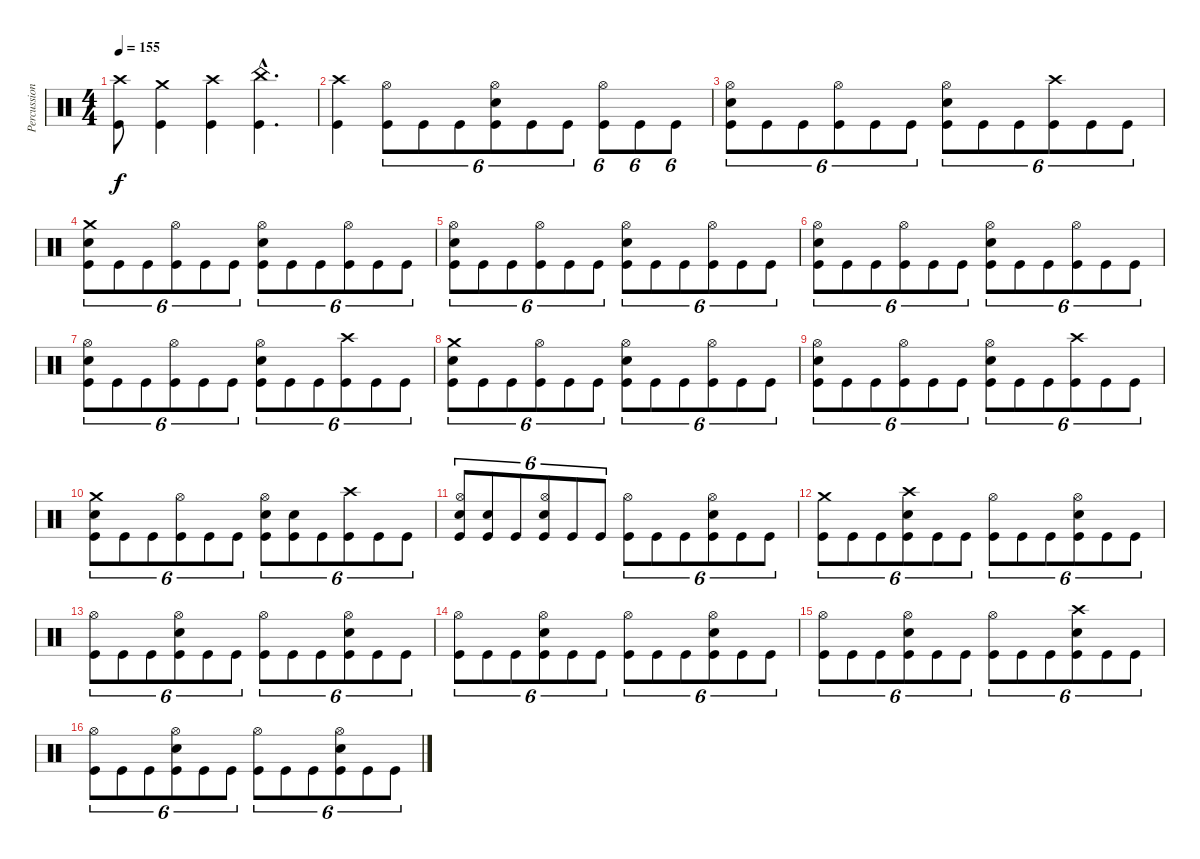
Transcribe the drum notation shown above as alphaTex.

\track ("Percussion" "Percussion") {instrument percussion}
\staff {score}
\articulation defaults
\ts (4 4)
\tempo 155
\clef neutral
\ks c
("Crash high (hit)" "Kick (hit)").8{dy f} ("Crash medium (hit)" "Kick (hit)").4 ("Crash high (hit)" "Kick (hit)").4 ("China (hit)"{hac} "Kick (hit)"{hac}).4{d} |
("Crash high (hit)" "Kick (hit)").4 ("Hi-Hat (open)" "Kick (hit)").8{tu (6 4)} "Kick (hit)".8{tu (6 4)} "Kick (hit)".8{tu (6 4)} ("Hi-Hat (open)" "Snare (hit) 2" "Kick (hit)").8{tu (6 4)} "Kick (hit)".8{tu (6 4)} "Kick (hit)".8{tu (6 4)} ("Hi-Hat (open)" "Kick (hit)").8{tu (6 4)} "Kick (hit)".8{tu (6 4)} "Kick (hit)".8{tu (6 4)} |
("Hi-Hat (open)" "Snare (hit) 2" "Kick (hit)").8{tu (6 4)} "Kick (hit)".8{tu (6 4)} "Kick (hit)".8{tu (6 4)} ("Hi-Hat (open)" "Kick (hit)").8{tu (6 4)} "Kick (hit)".8{tu (6 4)} "Kick (hit)".8{tu (6 4)} ("Hi-Hat (open)" "Snare (hit) 2" "Kick (hit)").8{tu (6 4)} "Kick (hit)".8{tu (6 4)} "Kick (hit)".8{tu (6 4)} ("Crash high (hit)" "Kick (hit)").8{tu (6 4)} "Kick (hit)".8{tu (6 4)} "Kick (hit)".8{tu (6 4)} |
("Crash medium (hit)" "Snare (hit) 2" "Kick (hit)").8{tu (6 4)} "Kick (hit)".8{tu (6 4)} "Kick (hit)".8{tu (6 4)} ("Hi-Hat (open)" "Kick (hit)").8{tu (6 4)} "Kick (hit)".8{tu (6 4)} "Kick (hit)".8{tu (6 4)} ("Hi-Hat (open)" "Snare (hit) 2" "Kick (hit)").8{tu (6 4)} "Kick (hit)".8{tu (6 4)} "Kick (hit)".8{tu (6 4)} ("Hi-Hat (open)" "Kick (hit)").8{tu (6 4)} "Kick (hit)".8{tu (6 4)} "Kick (hit)".8{tu (6 4)} |
("Hi-Hat (open)" "Snare (hit) 2" "Kick (hit)").8{tu (6 4)} "Kick (hit)".8{tu (6 4)} "Kick (hit)".8{tu (6 4)} ("Hi-Hat (open)" "Kick (hit)").8{tu (6 4)} "Kick (hit)".8{tu (6 4)} "Kick (hit)".8{tu (6 4)} ("Hi-Hat (open)" "Snare (hit) 2" "Kick (hit)").8{tu (6 4)} "Kick (hit)".8{tu (6 4)} "Kick (hit)".8{tu (6 4)} ("Hi-Hat (open)" "Kick (hit)").8{tu (6 4)} "Kick (hit)".8{tu (6 4)} "Kick (hit)".8{tu (6 4)} |
("Hi-Hat (open)" "Snare (hit) 2" "Kick (hit)").8{tu (6 4)} "Kick (hit)".8{tu (6 4)} "Kick (hit)".8{tu (6 4)} ("Hi-Hat (open)" "Kick (hit)").8{tu (6 4)} "Kick (hit)".8{tu (6 4)} "Kick (hit)".8{tu (6 4)} ("Hi-Hat (open)" "Snare (hit) 2" "Kick (hit)").8{tu (6 4)} "Kick (hit)".8{tu (6 4)} "Kick (hit)".8{tu (6 4)} ("Hi-Hat (open)" "Kick (hit)").8{tu (6 4)} "Kick (hit)".8{tu (6 4)} "Kick (hit)".8{tu (6 4)} |
("Hi-Hat (open)" "Snare (hit) 2" "Kick (hit)").8{tu (6 4)} "Kick (hit)".8{tu (6 4)} "Kick (hit)".8{tu (6 4)} ("Hi-Hat (open)" "Kick (hit)").8{tu (6 4)} "Kick (hit)".8{tu (6 4)} "Kick (hit)".8{tu (6 4)} ("Hi-Hat (open)" "Snare (hit) 2" "Kick (hit)").8{tu (6 4)} "Kick (hit)".8{tu (6 4)} "Kick (hit)".8{tu (6 4)} ("Crash high (hit)" "Kick (hit)").8{tu (6 4)} "Kick (hit)".8{tu (6 4)} "Kick (hit)".8{tu (6 4)} |
("Crash medium (hit)" "Snare (hit) 2" "Kick (hit)").8{tu (6 4)} "Kick (hit)".8{tu (6 4)} "Kick (hit)".8{tu (6 4)} ("Hi-Hat (open)" "Kick (hit)").8{tu (6 4)} "Kick (hit)".8{tu (6 4)} "Kick (hit)".8{tu (6 4)} ("Hi-Hat (open)" "Snare (hit) 2" "Kick (hit)").8{tu (6 4)} "Kick (hit)".8{tu (6 4)} "Kick (hit)".8{tu (6 4)} ("Hi-Hat (open)" "Kick (hit)").8{tu (6 4)} "Kick (hit)".8{tu (6 4)} "Kick (hit)".8{tu (6 4)} |
("Hi-Hat (open)" "Snare (hit) 2" "Kick (hit)").8{tu (6 4)} "Kick (hit)".8{tu (6 4)} "Kick (hit)".8{tu (6 4)} ("Hi-Hat (open)" "Kick (hit)").8{tu (6 4)} "Kick (hit)".8{tu (6 4)} "Kick (hit)".8{tu (6 4)} ("Hi-Hat (open)" "Snare (hit) 2" "Kick (hit)").8{tu (6 4)} "Kick (hit)".8{tu (6 4)} "Kick (hit)".8{tu (6 4)} ("Crash high (hit)" "Kick (hit)").8{tu (6 4)} "Kick (hit)".8{tu (6 4)} "Kick (hit)".8{tu (6 4)} |
("Crash medium (hit)" "Snare (hit) 2" "Kick (hit)").8{tu (6 4)} "Kick (hit)".8{tu (6 4)} "Kick (hit)".8{tu (6 4)} ("Hi-Hat (open)" "Kick (hit)").8{tu (6 4)} "Kick (hit)".8{tu (6 4)} "Kick (hit)".8{tu (6 4)} ("Hi-Hat (open)" "Snare (hit) 2" "Kick (hit)").8{tu (6 4)} ("Snare (hit) 2" "Kick (hit)").8{tu (6 4)} "Kick (hit)".8{tu (6 4)} ("Crash high (hit)" "Kick (hit)").8{tu (6 4)} "Kick (hit)".8{tu (6 4)} "Kick (hit)".8{tu (6 4)} |
("Hi-Hat (open)" "Snare (hit) 2" "Kick (hit)").8{tu (6 4)} ("Snare (hit) 2" "Kick (hit)").8{tu (6 4)} "Kick (hit)".8{tu (6 4)} ("Hi-Hat (open)" "Snare (hit) 2" "Kick (hit)").8{tu (6 4)} "Kick (hit)".8{tu (6 4)} "Kick (hit)".8{tu (6 4)} ("Hi-Hat (open)" "Kick (hit)").8{tu (6 4)} "Kick (hit)".8{tu (6 4)} "Kick (hit)".8{tu (6 4)} ("Hi-Hat (open)" "Snare (hit) 2" "Kick (hit)").8{tu (6 4)} "Kick (hit)".8{tu (6 4)} "Kick (hit)".8{tu (6 4)} |
("Crash medium (hit)" "Kick (hit)").8{tu (6 4)} "Kick (hit)".8{tu (6 4)} "Kick (hit)".8{tu (6 4)} ("Crash high (hit)" "Snare (hit) 2" "Kick (hit)").8{tu (6 4)} "Kick (hit)".8{tu (6 4)} "Kick (hit)".8{tu (6 4)} ("Hi-Hat (open)" "Kick (hit)").8{tu (6 4)} "Kick (hit)".8{tu (6 4)} "Kick (hit)".8{tu (6 4)} ("Hi-Hat (open)" "Snare (hit) 2" "Kick (hit)").8{tu (6 4)} "Kick (hit)".8{tu (6 4)} "Kick (hit)".8{tu (6 4)} |
("Hi-Hat (open)" "Kick (hit)").8{tu (6 4)} "Kick (hit)".8{tu (6 4)} "Kick (hit)".8{tu (6 4)} ("Hi-Hat (open)" "Snare (hit) 2" "Kick (hit)").8{tu (6 4)} "Kick (hit)".8{tu (6 4)} "Kick (hit)".8{tu (6 4)} ("Hi-Hat (open)" "Kick (hit)").8{tu (6 4)} "Kick (hit)".8{tu (6 4)} "Kick (hit)".8{tu (6 4)} ("Hi-Hat (open)" "Snare (hit) 2" "Kick (hit)").8{tu (6 4)} "Kick (hit)".8{tu (6 4)} "Kick (hit)".8{tu (6 4)} |
("Hi-Hat (open)" "Kick (hit)").8{tu (6 4)} "Kick (hit)".8{tu (6 4)} "Kick (hit)".8{tu (6 4)} ("Hi-Hat (open)" "Snare (hit) 2" "Kick (hit)").8{tu (6 4)} "Kick (hit)".8{tu (6 4)} "Kick (hit)".8{tu (6 4)} ("Hi-Hat (open)" "Kick (hit)").8{tu (6 4)} "Kick (hit)".8{tu (6 4)} "Kick (hit)".8{tu (6 4)} ("Hi-Hat (open)" "Snare (hit) 2" "Kick (hit)").8{tu (6 4)} "Kick (hit)".8{tu (6 4)} "Kick (hit)".8{tu (6 4)} |
("Hi-Hat (open)" "Kick (hit)").8{tu (6 4)} "Kick (hit)".8{tu (6 4)} "Kick (hit)".8{tu (6 4)} ("Hi-Hat (open)" "Snare (hit) 2" "Kick (hit)").8{tu (6 4)} "Kick (hit)".8{tu (6 4)} "Kick (hit)".8{tu (6 4)} ("Hi-Hat (open)" "Kick (hit)").8{tu (6 4)} "Kick (hit)".8{tu (6 4)} "Kick (hit)".8{tu (6 4)} ("Crash high (hit)" "Snare (hit) 2" "Kick (hit)").8{tu (6 4)} "Kick (hit)".8{tu (6 4)} "Kick (hit)".8{tu (6 4)} |
("Hi-Hat (open)" "Kick (hit)").8{tu (6 4)} "Kick (hit)".8{tu (6 4)} "Kick (hit)".8{tu (6 4)} ("Hi-Hat (open)" "Snare (hit) 2" "Kick (hit)").8{tu (6 4)} "Kick (hit)".8{tu (6 4)} "Kick (hit)".8{tu (6 4)} ("Hi-Hat (open)" "Kick (hit)").8{tu (6 4)} "Kick (hit)".8{tu (6 4)} "Kick (hit)".8{tu (6 4)} ("Hi-Hat (open)" "Snare (hit) 2" "Kick (hit)").8{tu (6 4)} "Kick (hit)".8{tu (6 4)} "Kick (hit)".8{tu (6 4)}
